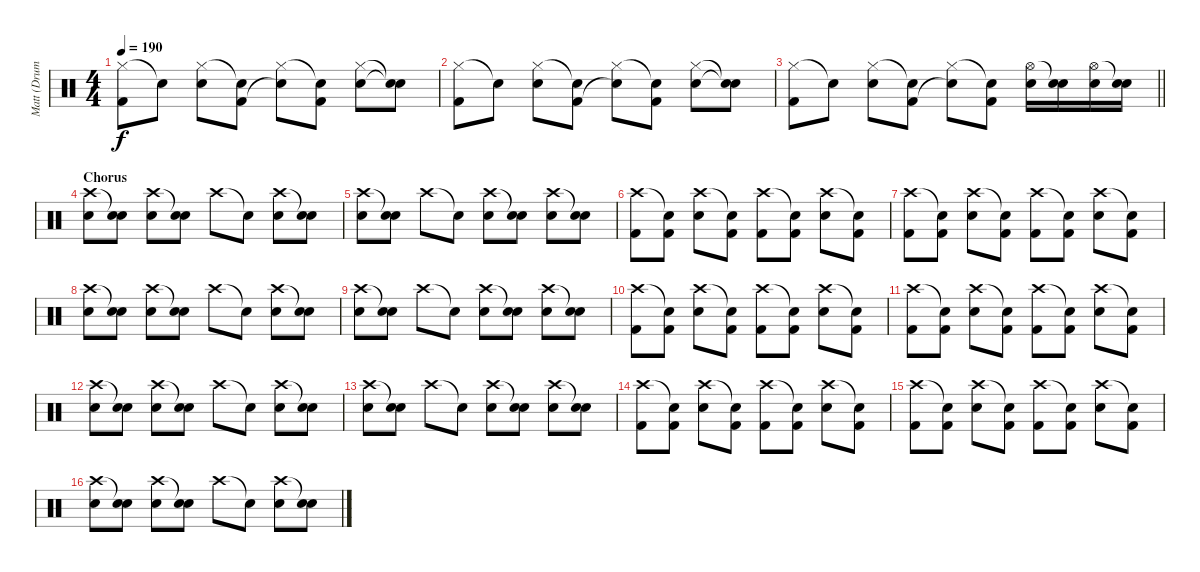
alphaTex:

\track ("Matt (Drums)" "Matt (Drum") {instrument percussion}
\staff {score}
\articulation defaults
\ts (4 4)
\tempo 190
\clef neutral
\ks c
("Hi-Hat (closed)" "Kick (hit) 2").8{dy f} "Snare (hit)"{t}.8 ("Hi-Hat (closed)" "Snare (hit) 2").8 ("Snare (hit)"{t} "Kick (hit) 2").8 ("Hi-Hat (closed)" "Snare (hit)"{t}).8 ("Snare (hit)"{t} "Kick (hit) 2").8 ("Hi-Hat (closed)" "Snare (hit) 2").8 ("Snare (hit)"{t} "Snare (hit)"{t}).8 |
("Hi-Hat (closed)" "Kick (hit) 2").8 "Snare (hit)"{t}.8 ("Hi-Hat (closed)" "Snare (hit) 2").8 ("Snare (hit)"{t} "Kick (hit) 2").8 ("Hi-Hat (closed)" "Snare (hit)"{t}).8 ("Snare (hit)"{t} "Kick (hit) 2").8 ("Hi-Hat (closed)" "Snare (hit) 2").8 ("Snare (hit)"{t} "Snare (hit)"{t}).8 |
\barLineRight lightlight
("Hi-Hat (closed)" "Kick (hit) 2").8 "Snare (hit)"{t}.8 ("Hi-Hat (closed)" "Snare (hit) 2").8 ("Snare (hit)"{t} "Kick (hit) 2").8 ("Hi-Hat (closed)" "Snare (hit)"{t}).8 ("Snare (hit)"{t} "Kick (hit) 2").8 ("Hi-Hat (open)" "Snare (hit) 2").16 ("Snare (hit)"{t} "Snare (hit) 2").16 ("Hi-Hat (open)" "Snare (hit) 2").16 ("Snare (hit)"{t} "Snare (hit) 2").16 |
\section ("" "Chorus")
("Crash high (hit)" "Snare (hit) 2").8 ("Snare (hit)"{t} "Snare (hit) 2").8 ("Crash high (hit)" "Snare (hit) 2").8 ("Snare (hit)"{t} "Snare (hit) 2").8 "Crash high (hit)".8 "Snare (hit)"{t}.8 ("Crash high (hit)" "Snare (hit) 2").8 ("Snare (hit)"{t} "Snare (hit) 2").8 |
("Crash high (hit)" "Snare (hit) 2").8 ("Snare (hit)"{t} "Snare (hit) 2").8 "Crash high (hit)".8 "Snare (hit)"{t}.8 ("Crash high (hit)" "Snare (hit) 2").8 ("Snare (hit)"{t} "Snare (hit) 2").8 ("Crash high (hit)" "Snare (hit) 2").8 ("Snare (hit)"{t} "Snare (hit) 2").8 |
("Crash high (hit)" "Kick (hit) 2").8 ("Snare (hit)"{t} "Kick (hit) 2").8 ("Crash high (hit)" "Snare (hit) 2").8 ("Snare (hit)"{t} "Kick (hit) 2").8 ("Crash high (hit)" "Kick (hit) 2").8 ("Snare (hit)"{t} "Kick (hit) 2").8 ("Crash high (hit)" "Snare (hit) 2").8 ("Snare (hit)"{t} "Kick (hit) 2").8 |
("Crash high (hit)" "Kick (hit) 2").8 ("Snare (hit)"{t} "Kick (hit) 2").8 ("Crash high (hit)" "Snare (hit) 2").8 ("Snare (hit)"{t} "Kick (hit) 2").8 ("Crash high (hit)" "Kick (hit) 2").8 ("Snare (hit)"{t} "Kick (hit) 2").8 ("Crash high (hit)" "Snare (hit) 2").8 ("Snare (hit)"{t} "Kick (hit) 2").8 |
("Crash high (hit)" "Snare (hit) 2").8 ("Snare (hit)"{t} "Snare (hit) 2").8 ("Crash high (hit)" "Snare (hit) 2").8 ("Snare (hit)"{t} "Snare (hit) 2").8 "Crash high (hit)".8 "Snare (hit)"{t}.8 ("Crash high (hit)" "Snare (hit) 2").8 ("Snare (hit)"{t} "Snare (hit) 2").8 |
("Crash high (hit)" "Snare (hit) 2").8 ("Snare (hit)"{t} "Snare (hit) 2").8 "Crash high (hit)".8 "Snare (hit)"{t}.8 ("Crash high (hit)" "Snare (hit) 2").8 ("Snare (hit)"{t} "Snare (hit) 2").8 ("Crash high (hit)" "Snare (hit) 2").8 ("Snare (hit)"{t} "Snare (hit) 2").8 |
("Crash high (hit)" "Kick (hit) 2").8 ("Snare (hit)"{t} "Kick (hit) 2").8 ("Crash high (hit)" "Snare (hit) 2").8 ("Snare (hit)"{t} "Kick (hit) 2").8 ("Crash high (hit)" "Kick (hit) 2").8 ("Snare (hit)"{t} "Kick (hit) 2").8 ("Crash high (hit)" "Snare (hit) 2").8 ("Snare (hit)"{t} "Kick (hit) 2").8 |
("Crash high (hit)" "Kick (hit) 2").8 ("Snare (hit)"{t} "Kick (hit) 2").8 ("Crash high (hit)" "Snare (hit) 2").8 ("Snare (hit)"{t} "Kick (hit) 2").8 ("Crash high (hit)" "Kick (hit) 2").8 ("Snare (hit)"{t} "Kick (hit) 2").8 ("Crash high (hit)" "Snare (hit) 2").8 ("Snare (hit)"{t} "Kick (hit) 2").8 |
("Crash high (hit)" "Snare (hit) 2").8 ("Snare (hit)"{t} "Snare (hit) 2").8 ("Crash high (hit)" "Snare (hit) 2").8 ("Snare (hit)"{t} "Snare (hit) 2").8 "Crash high (hit)".8 "Snare (hit)"{t}.8 ("Crash high (hit)" "Snare (hit) 2").8 ("Snare (hit)"{t} "Snare (hit) 2").8 |
("Crash high (hit)" "Snare (hit) 2").8 ("Snare (hit)"{t} "Snare (hit) 2").8 "Crash high (hit)".8 "Snare (hit)"{t}.8 ("Crash high (hit)" "Snare (hit) 2").8 ("Snare (hit)"{t} "Snare (hit) 2").8 ("Crash high (hit)" "Snare (hit) 2").8 ("Snare (hit)"{t} "Snare (hit) 2").8 |
("Crash high (hit)" "Kick (hit) 2").8 ("Snare (hit)"{t} "Kick (hit) 2").8 ("Crash high (hit)" "Snare (hit) 2").8 ("Snare (hit)"{t} "Kick (hit) 2").8 ("Crash high (hit)" "Kick (hit) 2").8 ("Snare (hit)"{t} "Kick (hit) 2").8 ("Crash high (hit)" "Snare (hit) 2").8 ("Snare (hit)"{t} "Kick (hit) 2").8 |
("Crash high (hit)" "Kick (hit) 2").8 ("Snare (hit)"{t} "Kick (hit) 2").8 ("Crash high (hit)" "Snare (hit) 2").8 ("Snare (hit)"{t} "Kick (hit) 2").8 ("Crash high (hit)" "Kick (hit) 2").8 ("Snare (hit)"{t} "Kick (hit) 2").8 ("Crash high (hit)" "Snare (hit) 2").8 ("Snare (hit)"{t} "Kick (hit) 2").8 |
("Crash high (hit)" "Snare (hit) 2").8 ("Snare (hit)"{t} "Snare (hit) 2").8 ("Crash high (hit)" "Snare (hit) 2").8 ("Snare (hit)"{t} "Snare (hit) 2").8 "Crash high (hit)".8 "Snare (hit)"{t}.8 ("Crash high (hit)" "Snare (hit) 2").8 ("Snare (hit)"{t} "Snare (hit) 2").8
